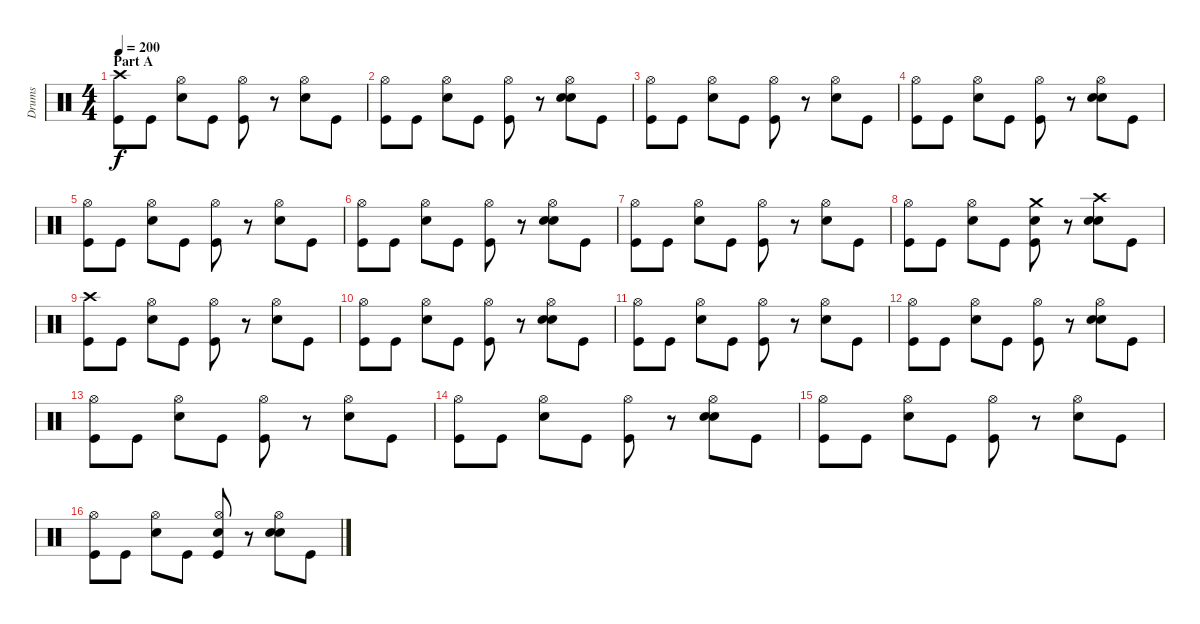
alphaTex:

\track ("Drums" "Drums") {instrument percussion}
\staff {score}
\articulation defaults
\ts (4 4)
\section ("" "Part A")
\tempo 200
\clef neutral
\ks c
("Crash high (hit)" "Kick (hit)").8{dy f} "Kick (hit)".8 ("Hi-Hat (open)" "Snare (hit) 2").8 "Kick (hit)".8 ("Hi-Hat (open)" "Kick (hit)").8 r.8 ("Hi-Hat (open)" "Snare (hit) 2").8 "Kick (hit)".8 |
("Hi-Hat (open)" "Kick (hit)").8 "Kick (hit)".8 ("Hi-Hat (open)" "Snare (hit) 2").8 "Kick (hit)".8 ("Hi-Hat (open)" "Kick (hit)").8 r.8 ("Hi-Hat (open)" "Hand Clap (hit)" "Snare (hit) 2").8 "Kick (hit)".8 |
("Hi-Hat (open)" "Kick (hit)").8 "Kick (hit)".8 ("Hi-Hat (open)" "Snare (hit) 2").8 "Kick (hit)".8 ("Hi-Hat (open)" "Kick (hit)").8 r.8 ("Hi-Hat (open)" "Snare (hit) 2").8 "Kick (hit)".8 |
("Hi-Hat (open)" "Kick (hit)").8 "Kick (hit)".8 ("Hi-Hat (open)" "Snare (hit) 2").8 "Kick (hit)".8 ("Hi-Hat (open)" "Kick (hit)").8 r.8 ("Hi-Hat (open)" "Hand Clap (hit)" "Snare (hit) 2").8 "Kick (hit)".8 |
("Hi-Hat (open)" "Kick (hit)").8 "Kick (hit)".8 ("Hi-Hat (open)" "Snare (hit) 2").8 "Kick (hit)".8 ("Hi-Hat (open)" "Kick (hit)").8 r.8 ("Hi-Hat (open)" "Snare (hit) 2").8 "Kick (hit)".8 |
("Hi-Hat (open)" "Kick (hit)").8 "Kick (hit)".8 ("Hi-Hat (open)" "Snare (hit) 2").8 "Kick (hit)".8 ("Hi-Hat (open)" "Kick (hit)").8 r.8 ("Hi-Hat (open)" "Hand Clap (hit)" "Snare (hit) 2").8 "Kick (hit)".8 |
("Hi-Hat (open)" "Kick (hit)").8 "Kick (hit)".8 ("Hi-Hat (open)" "Snare (hit) 2").8 "Kick (hit)".8 ("Hi-Hat (open)" "Kick (hit)").8 r.8 ("Hi-Hat (open)" "Snare (hit) 2").8 "Kick (hit)".8 |
("Hi-Hat (open)" "Kick (hit)").8 "Kick (hit)".8 ("Hi-Hat (open)" "Snare (hit) 2").8 "Kick (hit)".8 ("Crash medium (hit)" "Hand Clap (hit)" "Kick (hit)").8 r.8 ("Crash high (hit)" "Hand Clap (hit)" "Snare (hit) 2").8 "Kick (hit)".8 |
("Crash high (hit)" "Kick (hit)").8 "Kick (hit)".8 ("Hi-Hat (open)" "Snare (hit) 2").8 "Kick (hit)".8 ("Hi-Hat (open)" "Kick (hit)").8 r.8 ("Hi-Hat (open)" "Snare (hit) 2").8 "Kick (hit)".8 |
("Hi-Hat (open)" "Kick (hit)").8 "Kick (hit)".8 ("Hi-Hat (open)" "Snare (hit) 2").8 "Kick (hit)".8 ("Hi-Hat (open)" "Kick (hit)").8 r.8 ("Hi-Hat (open)" "Hand Clap (hit)" "Snare (hit) 2").8 "Kick (hit)".8 |
("Hi-Hat (open)" "Kick (hit)").8 "Kick (hit)".8 ("Hi-Hat (open)" "Snare (hit) 2").8 "Kick (hit)".8 ("Hi-Hat (open)" "Kick (hit)").8 r.8 ("Hi-Hat (open)" "Snare (hit) 2").8 "Kick (hit)".8 |
("Hi-Hat (open)" "Kick (hit)").8 "Kick (hit)".8 ("Hi-Hat (open)" "Snare (hit) 2").8 "Kick (hit)".8 ("Hi-Hat (open)" "Kick (hit)").8 r.8 ("Hi-Hat (open)" "Hand Clap (hit)" "Snare (hit) 2").8 "Kick (hit)".8 |
("Hi-Hat (open)" "Kick (hit)").8 "Kick (hit)".8 ("Hi-Hat (open)" "Snare (hit) 2").8 "Kick (hit)".8 ("Hi-Hat (open)" "Kick (hit)").8 r.8 ("Hi-Hat (open)" "Snare (hit) 2").8 "Kick (hit)".8 |
("Hi-Hat (open)" "Kick (hit)").8 "Kick (hit)".8 ("Hi-Hat (open)" "Snare (hit) 2").8 "Kick (hit)".8 ("Hi-Hat (open)" "Kick (hit)").8 r.8 ("Hi-Hat (open)" "Hand Clap (hit)" "Snare (hit) 2").8 "Kick (hit)".8 |
("Hi-Hat (open)" "Kick (hit)").8 "Kick (hit)".8 ("Hi-Hat (open)" "Snare (hit) 2").8 "Kick (hit)".8 ("Hi-Hat (open)" "Kick (hit)").8 r.8 ("Hi-Hat (open)" "Snare (hit) 2").8 "Kick (hit)".8 |
("Hi-Hat (open)" "Kick (hit)").8 "Kick (hit)".8 ("Hi-Hat (open)" "Snare (hit) 2").8 "Kick (hit)".8 ("Hi-Hat (open)" "Hand Clap (hit)" "Kick (hit)").8 r.8 ("Hi-Hat (open)" "Hand Clap (hit)" "Snare (hit) 2").8 "Kick (hit)".8
